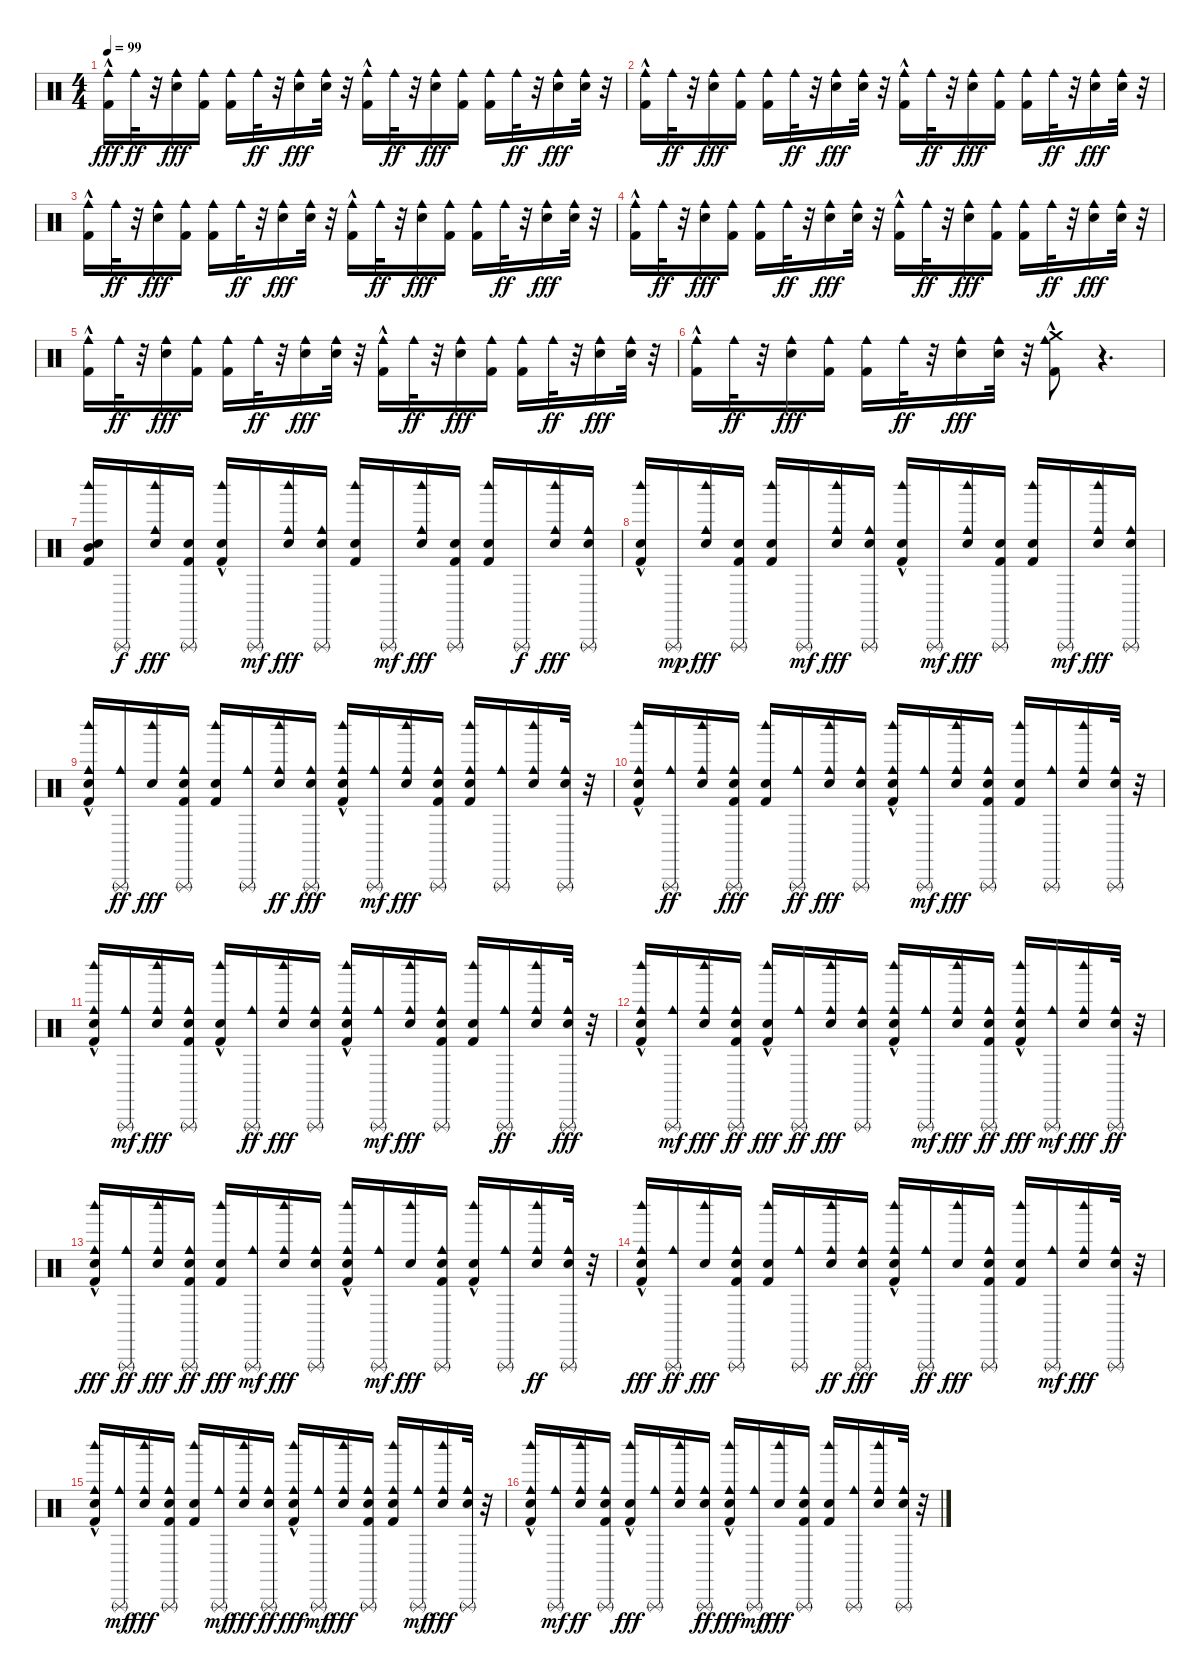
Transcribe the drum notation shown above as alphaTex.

\track "" {instrument percussion}
\staff {score}
\articulation defaults
\ts (4 4)
\tempo 99
\clef neutral
\ks c
("Cowbell medium (hit)" "Kick (hit) 2"{hac}).16{dy fff} "Cowbell medium (hit)".32{dy ff} r.32 ("Cowbell medium (hit)" "Electric Snare (hit)").16{dy fff} ("Cowbell medium (hit)" "Kick (hit) 2").16 ("Cowbell medium (hit)" "Kick (hit) 2").16 "Cowbell medium (hit)".32{dy ff} r.32 ("Cowbell medium (hit)" "Electric Snare (hit)").16{dy fff} ("Cowbell medium (hit)" "Electric Snare (hit)").32 r.32 ("Cowbell medium (hit)" "Kick (hit) 2"{hac}).16 "Cowbell medium (hit)".32{dy ff} r.32 ("Cowbell medium (hit)" "Electric Snare (hit)").16{dy fff} ("Cowbell medium (hit)" "Kick (hit) 2").16 ("Cowbell medium (hit)" "Kick (hit) 2").16 "Cowbell medium (hit)".32{dy ff} r.32 ("Cowbell medium (hit)" "Electric Snare (hit)").16{dy fff} ("Cowbell medium (hit)" "Electric Snare (hit)").32 r.32 |
("Cowbell medium (hit)" "Kick (hit) 2"{hac}).16 "Cowbell medium (hit)".32{dy ff} r.32 ("Cowbell medium (hit)" "Electric Snare (hit)").16{dy fff} ("Cowbell medium (hit)" "Kick (hit) 2").16 ("Cowbell medium (hit)" "Kick (hit) 2").16 "Cowbell medium (hit)".32{dy ff} r.32 ("Cowbell medium (hit)" "Electric Snare (hit)").16{dy fff} ("Cowbell medium (hit)" "Electric Snare (hit)").32 r.32 ("Cowbell medium (hit)" "Kick (hit) 2"{hac}).16 "Cowbell medium (hit)".32{dy ff} r.32 ("Cowbell medium (hit)" "Electric Snare (hit)").16{dy fff} ("Cowbell medium (hit)" "Kick (hit) 2").16 ("Cowbell medium (hit)" "Kick (hit) 2").16 "Cowbell medium (hit)".32{dy ff} r.32 ("Cowbell medium (hit)" "Electric Snare (hit)").16{dy fff} ("Cowbell medium (hit)" "Electric Snare (hit)").32 r.32 |
("Cowbell medium (hit)" "Kick (hit) 2"{hac}).16 "Cowbell medium (hit)".32{dy ff} r.32 ("Cowbell medium (hit)" "Electric Snare (hit)").16{dy fff} ("Cowbell medium (hit)" "Kick (hit) 2").16 ("Cowbell medium (hit)" "Kick (hit) 2").16 "Cowbell medium (hit)".32{dy ff} r.32 ("Cowbell medium (hit)" "Electric Snare (hit)").16{dy fff} ("Cowbell medium (hit)" "Electric Snare (hit)").32 r.32 ("Cowbell medium (hit)" "Kick (hit) 2"{hac}).16 "Cowbell medium (hit)".32{dy ff} r.32 ("Cowbell medium (hit)" "Electric Snare (hit)").16{dy fff} ("Cowbell medium (hit)" "Kick (hit) 2").16 ("Cowbell medium (hit)" "Kick (hit) 2").16 "Cowbell medium (hit)".32{dy ff} r.32 ("Cowbell medium (hit)" "Electric Snare (hit)").16{dy fff} ("Cowbell medium (hit)" "Electric Snare (hit)").32 r.32 |
("Cowbell medium (hit)" "Kick (hit) 2"{hac}).16 "Cowbell medium (hit)".32{dy ff} r.32 ("Cowbell medium (hit)" "Electric Snare (hit)").16{dy fff} ("Cowbell medium (hit)" "Kick (hit) 2").16 ("Cowbell medium (hit)" "Kick (hit) 2").16 "Cowbell medium (hit)".32{dy ff} r.32 ("Cowbell medium (hit)" "Electric Snare (hit)").16{dy fff} ("Cowbell medium (hit)" "Electric Snare (hit)").32 r.32 ("Cowbell medium (hit)" "Kick (hit) 2"{hac}).16 "Cowbell medium (hit)".32{dy ff} r.32 ("Cowbell medium (hit)" "Electric Snare (hit)").16{dy fff} ("Cowbell medium (hit)" "Kick (hit) 2").16 ("Cowbell medium (hit)" "Kick (hit) 2").16 "Cowbell medium (hit)".32{dy ff} r.32 ("Cowbell medium (hit)" "Electric Snare (hit)").16{dy fff} ("Cowbell medium (hit)" "Electric Snare (hit)").32 r.32 |
("Cowbell medium (hit)" "Kick (hit) 2"{hac}).16 "Cowbell medium (hit)".32{dy ff} r.32 ("Cowbell medium (hit)" "Electric Snare (hit)").16{dy fff} ("Cowbell medium (hit)" "Kick (hit) 2").16 ("Cowbell medium (hit)" "Kick (hit) 2").16 "Cowbell medium (hit)".32{dy ff} r.32 ("Cowbell medium (hit)" "Electric Snare (hit)").16{dy fff} ("Cowbell medium (hit)" "Electric Snare (hit)").32 r.32 ("Cowbell medium (hit)" "Kick (hit) 2"{hac}).16 "Cowbell medium (hit)".32{dy ff} r.32 ("Cowbell medium (hit)" "Electric Snare (hit)").16{dy fff} ("Cowbell medium (hit)" "Kick (hit) 2").16 ("Cowbell medium (hit)" "Kick (hit) 2").16 "Cowbell medium (hit)".32{dy ff} r.32 ("Cowbell medium (hit)" "Electric Snare (hit)").16{dy fff} ("Cowbell medium (hit)" "Electric Snare (hit)").32 r.32 |
("Cowbell medium (hit)" "Kick (hit) 2"{hac}).16 "Cowbell medium (hit)".32{dy ff} r.32 ("Cowbell medium (hit)" "Electric Snare (hit)").16{dy fff} ("Cowbell medium (hit)" "Kick (hit) 2").16 ("Cowbell medium (hit)" "Kick (hit) 2").16 "Cowbell medium (hit)".32{dy ff} r.32 ("Cowbell medium (hit)" "Electric Snare (hit)").16{dy fff} ("Cowbell medium (hit)" "Electric Snare (hit)").32 r.32 ("Crash medium (hit)" "Cowbell medium (hit)" "Kick (hit) 2"{hac}).8 r.4{d} |
("Woodblock high (hit)" "Metronome (bell)" "Mid Tom (hit)" "Kick (hit) 2").16 "Triangle (rnute)".16{dy f} ("Cowbell medium (hit)" "Woodblock high (hit)" "Snare (hit) 2").16{dy fff} ("Kick (hit) 2" "Triangle (rnute)" "Metronome (bell)").16 ("Woodblock high (hit)" "Metronome (bell)"{hac} "Kick (hit) 2").16 "Triangle (rnute)".16{dy mf} ("Cowbell medium (hit)" "Woodblock high (hit)" "Snare (hit) 2").16{dy fff} ("Cowbell medium (hit)" "Triangle (rnute)" "Snare (hit) 2").16 ("Woodblock high (hit)" "Metronome (bell)" "Kick (hit) 2").16 "Triangle (rnute)".16{dy mf} ("Woodblock high (hit)" "Snare (hit) 2" "Cowbell medium (hit)").16{dy fff} ("Kick (hit) 2" "Triangle (rnute)" "Metronome (bell)").16 ("Woodblock high (hit)" "Metronome (bell)" "Kick (hit) 2").16 "Triangle (rnute)".16{dy f} ("Cowbell medium (hit)" "Woodblock high (hit)" "Snare (hit) 2").16{dy fff} ("Cowbell medium (hit)" "Triangle (rnute)" "Snare (hit) 2").16 |
("Kick (hit) 2" "Woodblock high (hit)" "Metronome (bell)"{hac}).16 "Triangle (rnute)".16{dy mp} ("Woodblock high (hit)" "Snare (hit) 2" "Cowbell medium (hit)").16{dy fff} ("Kick (hit) 2" "Triangle (rnute)" "Metronome (bell)").16 ("Woodblock high (hit)" "Metronome (bell)" "Kick (hit) 2").16 "Triangle (rnute)".16{dy mf} ("Cowbell medium (hit)" "Woodblock high (hit)" "Snare (hit) 2").16{dy fff} ("Cowbell medium (hit)" "Triangle (rnute)" "Snare (hit) 2").16 ("Kick (hit) 2" "Woodblock high (hit)" "Metronome (bell)"{hac}).16 "Triangle (rnute)".16{dy mf} ("Woodblock high (hit)" "Snare (hit) 2" "Cowbell medium (hit)").16{dy fff} ("Triangle (rnute)" "Metronome (bell)" "Kick (hit) 2").16 ("Woodblock high (hit)" "Metronome (bell)" "Kick (hit) 2").16 "Triangle (rnute)".16{dy mf} ("Cowbell medium (hit)" "Woodblock high (hit)" "Snare (hit) 2").16{dy fff} ("Cowbell medium (hit)" "Triangle (rnute)" "Snare (hit) 2").16 |
("Kick (hit) 2" "Woodblock high (hit)" "Metronome (bell)"{hac} "Cowbell medium (hit)").16 ("Triangle (rnute)" "Cowbell medium (hit)").16{dy ff} ("Woodblock high (hit)" "Snare (hit) 2").16{dy fff} ("Kick (hit) 2" "Triangle (rnute)" "Metronome (bell)" "Cowbell medium (hit)").16 ("Kick (hit) 2" "Woodblock high (hit)" "Metronome (bell)").16 ("Triangle (rnute)" "Cowbell medium (hit)").16 ("Woodblock high (hit)" "Snare (hit) 2" "Cowbell medium (hit)").16{dy ff} ("Cowbell medium (hit)" "Triangle (rnute)" "Snare (hit) 2").16{dy fff} ("Kick (hit) 2" "Cowbell medium (hit)" "Woodblock high (hit)" "Metronome (bell)"{hac}).16 ("Cowbell medium (hit)" "Triangle (rnute)").16{dy mf} ("Cowbell medium (hit)" "Woodblock high (hit)" "Snare (hit) 2").16{dy fff} ("Triangle (rnute)" "Metronome (bell)" "Cowbell medium (hit)" "Kick (hit) 2").16 ("Woodblock high (hit)" "Metronome (bell)" "Cowbell medium (hit)" "Kick (hit) 2").16 ("Triangle (rnute)" "Cowbell medium (hit)").16 ("Woodblock high (hit)" "Snare (hit) 2" "Cowbell medium (hit)").16 ("Triangle (rnute)" "Snare (hit) 2" "Cowbell medium (hit)").32 r.32 |
("Kick (hit) 2" "Woodblock high (hit)" "Metronome (bell)"{hac} "Cowbell medium (hit)").16 ("Triangle (rnute)" "Cowbell medium (hit)").16{dy ff} ("Woodblock high (hit)" "Snare (hit) 2" "Cowbell medium (hit)").16 ("Kick (hit) 2" "Cowbell medium (hit)" "Triangle (rnute)" "Metronome (bell)").16{dy fff} ("Kick (hit) 2" "Woodblock high (hit)" "Metronome (bell)").16 ("Triangle (rnute)" "Cowbell medium (hit)").16{dy ff} ("Cowbell medium (hit)" "Woodblock high (hit)" "Snare (hit) 2").16{dy fff} ("Triangle (rnute)" "Snare (hit) 2" "Cowbell medium (hit)").16 ("Kick (hit) 2" "Cowbell medium (hit)" "Woodblock high (hit)" "Metronome (bell)"{hac}).16 ("Cowbell medium (hit)" "Triangle (rnute)").16{dy mf} ("Cowbell medium (hit)" "Woodblock high (hit)" "Snare (hit) 2").16{dy fff} ("Cowbell medium (hit)" "Triangle (rnute)" "Metronome (bell)" "Kick (hit) 2").16 ("Woodblock high (hit)" "Metronome (bell)" "Kick (hit) 2").16 ("Triangle (rnute)" "Cowbell medium (hit)").16 ("Woodblock high (hit)" "Snare (hit) 2" "Cowbell medium (hit)").16 ("Cowbell medium (hit)" "Triangle (rnute)" "Snare (hit) 2").32 r.32 |
("Kick (hit) 2" "Cowbell medium (hit)" "Woodblock high (hit)" "Metronome (bell)"{hac}).16 ("Cowbell medium (hit)" "Triangle (rnute)").16{dy mf} ("Cowbell medium (hit)" "Woodblock high (hit)" "Snare (hit) 2").16{dy fff} ("Kick (hit) 2" "Cowbell medium (hit)" "Triangle (rnute)" "Metronome (bell)").16 ("Kick (hit) 2"{hac} "Woodblock high (hit)" "Metronome (bell)").16 ("Triangle (rnute)" "Cowbell medium (hit)").16{dy ff} ("Cowbell medium (hit)" "Woodblock high (hit)" "Snare (hit) 2").16{dy fff} ("Cowbell medium (hit)" "Triangle (rnute)" "Snare (hit) 2").16 ("Kick (hit) 2" "Cowbell medium (hit)" "Woodblock high (hit)" "Metronome (bell)"{hac}).16 ("Cowbell medium (hit)" "Triangle (rnute)").16{dy mf} ("Cowbell medium (hit)" "Woodblock high (hit)" "Snare (hit) 2").16{dy fff} ("Kick (hit) 2" "Cowbell medium (hit)" "Triangle (rnute)" "Metronome (bell)").16 ("Woodblock high (hit)" "Metronome (bell)" "Kick (hit) 2").16 ("Triangle (rnute)" "Cowbell medium (hit)").16{dy ff} ("Woodblock high (hit)" "Snare (hit) 2" "Cowbell medium (hit)").16 ("Cowbell medium (hit)" "Triangle (rnute)" "Snare (hit) 2").32{dy fff} r.32 |
("Kick (hit) 2" "Cowbell medium (hit)" "Woodblock high (hit)" "Metronome (bell)"{hac}).16 ("Cowbell medium (hit)" "Triangle (rnute)").16{dy mf} ("Cowbell medium (hit)" "Woodblock high (hit)" "Snare (hit) 2").16{dy fff} ("Kick (hit) 2" "Triangle (rnute)" "Metronome (bell)" "Cowbell medium (hit)").16{dy ff} ("Kick (hit) 2"{hac} "Woodblock high (hit)" "Metronome (bell)").16{dy fff} ("Triangle (rnute)" "Cowbell medium (hit)").16{dy ff} ("Cowbell medium (hit)" "Woodblock high (hit)" "Snare (hit) 2").16{dy fff} ("Cowbell medium (hit)" "Triangle (rnute)" "Snare (hit) 2").16 ("Kick (hit) 2" "Cowbell medium (hit)" "Woodblock high (hit)" "Metronome (bell)"{hac}).16 ("Cowbell medium (hit)" "Triangle (rnute)").16{dy mf} ("Cowbell medium (hit)" "Woodblock high (hit)" "Snare (hit) 2").16{dy fff} ("Kick (hit) 2" "Triangle (rnute)" "Metronome (bell)" "Cowbell medium (hit)").16{dy ff} ("Kick (hit) 2"{hac} "Cowbell medium (hit)" "Woodblock high (hit)" "Metronome (bell)").16{dy fff} ("Cowbell medium (hit)" "Triangle (rnute)").16{dy mf} ("Woodblock high (hit)" "Snare (hit) 2" "Cowbell medium (hit)").16{dy fff} ("Triangle (rnute)" "Snare (hit) 2" "Cowbell medium (hit)").32{dy ff} r.32 |
("Kick (hit) 2" "Woodblock high (hit)" "Metronome (bell)"{hac} "Cowbell medium (hit)").16{dy fff} ("Triangle (rnute)" "Cowbell medium (hit)").16{dy ff} ("Woodblock high (hit)" "Snare (hit) 2" "Cowbell medium (hit)").16{dy fff} ("Kick (hit) 2" "Triangle (rnute)" "Metronome (bell)" "Cowbell medium (hit)").16{dy ff} ("Woodblock high (hit)" "Metronome (bell)" "Kick (hit) 2").16{dy fff} ("Cowbell medium (hit)" "Triangle (rnute)").16{dy mf} ("Woodblock high (hit)" "Snare (hit) 2" "Cowbell medium (hit)").16{dy fff} ("Triangle (rnute)" "Snare (hit) 2" "Cowbell medium (hit)").16 ("Kick (hit) 2" "Woodblock high (hit)" "Metronome (bell)"{hac} "Cowbell medium (hit)").16 ("Triangle (rnute)" "Cowbell medium (hit)").16{dy mf} ("Woodblock high (hit)" "Snare (hit) 2").16{dy fff} ("Kick (hit) 2" "Triangle (rnute)" "Metronome (bell)" "Cowbell medium (hit)").16 ("Kick (hit) 2"{hac} "Woodblock high (hit)" "Metronome (bell)").16 ("Triangle (rnute)" "Cowbell medium (hit)").16 ("Woodblock high (hit)" "Snare (hit) 2" "Cowbell medium (hit)").16{dy ff} ("Triangle (rnute)" "Snare (hit) 2" "Cowbell medium (hit)").32 r.32 |
("Woodblock high (hit)" "Metronome (bell)"{hac} "Cowbell medium (hit)" "Kick (hit) 2").16{dy fff} ("Triangle (rnute)" "Cowbell medium (hit)").16{dy ff} ("Woodblock high (hit)" "Snare (hit) 2").16{dy fff} ("Kick (hit) 2" "Cowbell medium (hit)" "Triangle (rnute)" "Metronome (bell)").16 ("Woodblock high (hit)" "Metronome (bell)" "Kick (hit) 2").16 ("Triangle (rnute)" "Cowbell medium (hit)").16 ("Woodblock high (hit)" "Snare (hit) 2" "Cowbell medium (hit)").16{dy ff} ("Triangle (rnute)" "Snare (hit) 2" "Cowbell medium (hit)").16{dy fff} ("Kick (hit) 2" "Cowbell medium (hit)" "Woodblock high (hit)" "Metronome (bell)"{hac}).16 ("Triangle (rnute)" "Cowbell medium (hit)").16{dy ff} ("Woodblock high (hit)" "Snare (hit) 2").16{dy fff} ("Kick (hit) 2" "Cowbell medium (hit)" "Triangle (rnute)" "Metronome (bell)").16 ("Kick (hit) 2" "Woodblock high (hit)" "Metronome (bell)").16 ("Cowbell medium (hit)" "Triangle (rnute)").16{dy mf} ("Cowbell medium (hit)" "Woodblock high (hit)" "Snare (hit) 2").16{dy fff} ("Triangle (rnute)" "Snare (hit) 2" "Cowbell medium (hit)").32 r.32 |
("Kick (hit) 2" "Cowbell medium (hit)" "Woodblock high (hit)" "Metronome (bell)"{hac}).16 ("Cowbell medium (hit)" "Triangle (rnute)").16{dy mf} ("Cowbell medium (hit)" "Woodblock high (hit)" "Snare (hit) 2").16{dy fff} ("Cowbell medium (hit)" "Triangle (rnute)" "Metronome (bell)" "Kick (hit) 2").16 ("Woodblock high (hit)" "Metronome (bell)" "Kick (hit) 2").16 ("Triangle (rnute)" "Cowbell medium (hit)").16{dy mf} ("Woodblock high (hit)" "Snare (hit) 2" "Cowbell medium (hit)").16{dy fff} ("Triangle (rnute)" "Snare (hit) 2" "Cowbell medium (hit)").16{dy ff} ("Kick (hit) 2" "Woodblock high (hit)" "Metronome (bell)"{hac} "Cowbell medium (hit)").16{dy fff} ("Cowbell medium (hit)" "Triangle (rnute)").16{dy mf} ("Cowbell medium (hit)" "Woodblock high (hit)" "Snare (hit) 2").16{dy fff} ("Kick (hit) 2" "Cowbell medium (hit)" "Triangle (rnute)" "Metronome (bell)").16 ("Kick (hit) 2" "Cowbell medium (hit)" "Woodblock high (hit)" "Metronome (bell)").16 ("Cowbell medium (hit)" "Triangle (rnute)").16{dy mf} ("Woodblock high (hit)" "Snare (hit) 2" "Cowbell medium (hit)").16{dy fff} ("Triangle (rnute)" "Snare (hit) 2" "Cowbell medium (hit)").32 r.32 |
("Cowbell medium (hit)" "Woodblock high (hit)" "Metronome (bell)"{hac} "Kick (hit) 2").16 ("Cowbell medium (hit)" "Triangle (rnute)").16{dy mf} ("Woodblock high (hit)" "Snare (hit) 2" "Cowbell medium (hit)").16{dy ff} ("Kick (hit) 2" "Triangle (rnute)" "Metronome (bell)" "Cowbell medium (hit)").16 ("Kick (hit) 2"{hac} "Woodblock high (hit)" "Metronome (bell)").16{dy fff} ("Triangle (rnute)" "Cowbell medium (hit)").16 ("Woodblock high (hit)" "Snare (hit) 2" "Cowbell medium (hit)").16 ("Triangle (rnute)" "Snare (hit) 2" "Cowbell medium (hit)").16{dy ff} ("Woodblock high (hit)" "Metronome (bell)"{hac} "Cowbell medium (hit)" "Kick (hit) 2"{hac}).16{dy fff} ("Cowbell medium (hit)" "Triangle (rnute)").16{dy mf} ("Woodblock high (hit)" "Snare (hit) 2").16{dy fff} ("Kick (hit) 2" "Triangle (rnute)" "Metronome (bell)" "Cowbell medium (hit)").16 ("Kick (hit) 2" "Woodblock high (hit)" "Metronome (bell)").16 ("Triangle (rnute)" "Cowbell medium (hit)").16 ("Woodblock high (hit)" "Snare (hit) 2" "Cowbell medium (hit)").16 ("Triangle (rnute)" "Snare (hit) 2" "Cowbell medium (hit)").32 r.32
